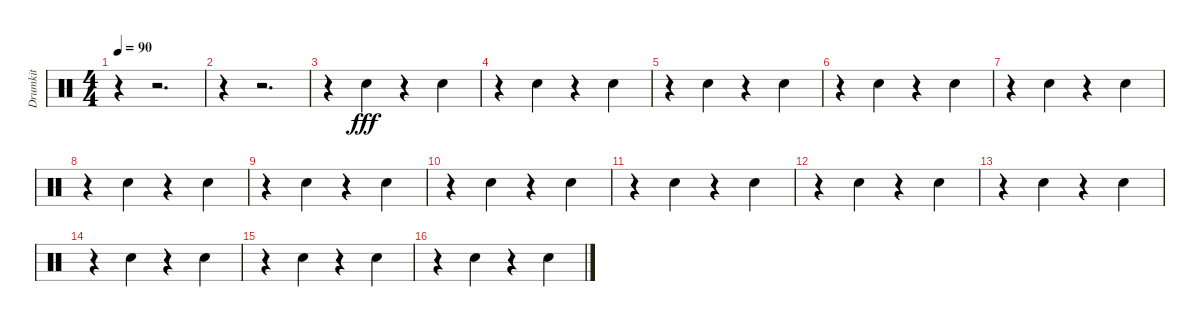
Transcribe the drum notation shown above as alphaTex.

\track ("Drumkit" "Drumkit") {instrument percussion}
\staff {score}
\articulation defaults
\ts (4 4)
\tempo 90
\clef neutral
\ks c
r.4{dy fff} r.2{d} |
r.4 r.2{d} |
r.4 "Snare (hit) 2".4 r.4 "Snare (hit) 2".4 |
r.4 "Snare (hit) 2".4 r.4 "Snare (hit) 2".4 |
r.4 "Snare (hit) 2".4 r.4 "Snare (hit) 2".4 |
r.4 "Snare (hit) 2".4 r.4 "Snare (hit) 2".4 |
r.4 "Snare (hit) 2".4 r.4 "Snare (hit) 2".4 |
r.4 "Snare (hit) 2".4 r.4 "Snare (hit) 2".4 |
r.4 "Snare (hit) 2".4 r.4 "Snare (hit) 2".4 |
r.4 "Snare (hit) 2".4 r.4 "Snare (hit) 2".4 |
r.4 "Snare (hit) 2".4 r.4 "Snare (hit) 2".4 |
r.4 "Snare (hit) 2".4 r.4 "Snare (hit) 2".4 |
r.4 "Snare (hit) 2".4 r.4 "Snare (hit) 2".4 |
r.4 "Snare (hit) 2".4 r.4 "Snare (hit) 2".4 |
r.4 "Snare (hit) 2".4 r.4 "Snare (hit) 2".4 |
r.4 "Snare (hit) 2".4 r.4 "Snare (hit) 2".4
